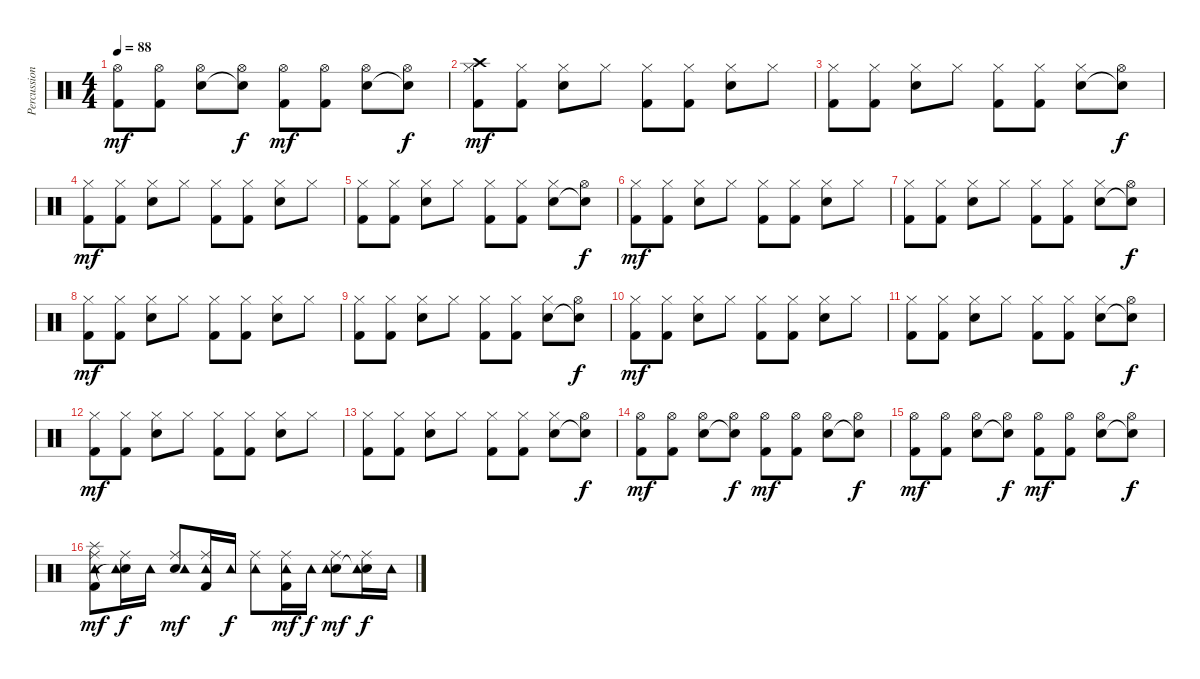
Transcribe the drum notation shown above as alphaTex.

\track ("Percussions" "Percussion") {instrument percussion}
\staff {score}
\articulation defaults
\ts (4 4)
\tempo 88
\clef neutral
\ks c
("Kick (hit) 2" "Hi-Hat (open)").8{dy mf} ("Kick (hit) 2" "Hi-Hat (open)").8 ("Snare (hit) 2" "Hi-Hat (open)").8 ("Snare (hit)"{t} "Hi-Hat (open)").8{dy f} ("Kick (hit) 2" "Hi-Hat (open)").8{dy mf} ("Kick (hit) 2" "Hi-Hat (open)").8 ("Snare (hit) 2" "Hi-Hat (open)").8 ("Snare (hit)"{t} "Hi-Hat (open)").8{dy f} |
("Kick (hit) 2" "Hi-Hat (closed)" "Crash high (hit)").8{dy mf} ("Kick (hit) 2" "Hi-Hat (closed)").8 ("Snare (hit) 2" "Hi-Hat (closed)").8 "Hi-Hat (closed)".8 ("Kick (hit) 2" "Hi-Hat (closed)").8 ("Kick (hit) 2" "Hi-Hat (closed)").8 ("Snare (hit) 2" "Hi-Hat (closed)").8 "Hi-Hat (closed)".8 |
("Kick (hit) 2" "Hi-Hat (closed)").8 ("Kick (hit) 2" "Hi-Hat (closed)").8 ("Snare (hit) 2" "Hi-Hat (closed)").8 "Hi-Hat (closed)".8 ("Kick (hit) 2" "Hi-Hat (closed)").8 ("Kick (hit) 2" "Hi-Hat (closed)").8 ("Snare (hit) 2" "Hi-Hat (closed)").8 ("Snare (hit)"{t} "Hi-Hat (open)").8{dy f} |
("Kick (hit) 2" "Hi-Hat (closed)").8{dy mf} ("Kick (hit) 2" "Hi-Hat (closed)").8 ("Snare (hit) 2" "Hi-Hat (closed)").8 "Hi-Hat (closed)".8 ("Kick (hit) 2" "Hi-Hat (closed)").8 ("Kick (hit) 2" "Hi-Hat (closed)").8 ("Snare (hit) 2" "Hi-Hat (closed)").8 "Hi-Hat (closed)".8 |
("Kick (hit) 2" "Hi-Hat (closed)").8 ("Kick (hit) 2" "Hi-Hat (closed)").8 ("Snare (hit) 2" "Hi-Hat (closed)").8 "Hi-Hat (closed)".8 ("Kick (hit) 2" "Hi-Hat (closed)").8 ("Kick (hit) 2" "Hi-Hat (closed)").8 ("Snare (hit) 2" "Hi-Hat (closed)").8 ("Snare (hit)"{t} "Hi-Hat (open)").8{dy f} |
("Kick (hit) 2" "Hi-Hat (closed)").8{dy mf} ("Kick (hit) 2" "Hi-Hat (closed)").8 ("Snare (hit) 2" "Hi-Hat (closed)").8 "Hi-Hat (closed)".8 ("Kick (hit) 2" "Hi-Hat (closed)").8 ("Kick (hit) 2" "Hi-Hat (closed)").8 ("Snare (hit) 2" "Hi-Hat (closed)").8 "Hi-Hat (closed)".8 |
("Kick (hit) 2" "Hi-Hat (closed)").8 ("Kick (hit) 2" "Hi-Hat (closed)").8 ("Snare (hit) 2" "Hi-Hat (closed)").8 "Hi-Hat (closed)".8 ("Kick (hit) 2" "Hi-Hat (closed)").8 ("Kick (hit) 2" "Hi-Hat (closed)").8 ("Snare (hit) 2" "Hi-Hat (closed)").8 ("Snare (hit)"{t} "Hi-Hat (open)").8{dy f} |
("Kick (hit) 2" "Hi-Hat (closed)").8{dy mf} ("Kick (hit) 2" "Hi-Hat (closed)").8 ("Snare (hit) 2" "Hi-Hat (closed)").8 "Hi-Hat (closed)".8 ("Kick (hit) 2" "Hi-Hat (closed)").8 ("Kick (hit) 2" "Hi-Hat (closed)").8 ("Snare (hit) 2" "Hi-Hat (closed)").8 "Hi-Hat (closed)".8 |
("Kick (hit) 2" "Hi-Hat (closed)").8 ("Kick (hit) 2" "Hi-Hat (closed)").8 ("Snare (hit) 2" "Hi-Hat (closed)").8 "Hi-Hat (closed)".8 ("Kick (hit) 2" "Hi-Hat (closed)").8 ("Kick (hit) 2" "Hi-Hat (closed)").8 ("Snare (hit) 2" "Hi-Hat (closed)").8 ("Snare (hit)"{t} "Hi-Hat (open)").8{dy f} |
("Kick (hit) 2" "Hi-Hat (closed)").8{dy mf} ("Kick (hit) 2" "Hi-Hat (closed)").8 ("Snare (hit) 2" "Hi-Hat (closed)").8 "Hi-Hat (closed)".8 ("Kick (hit) 2" "Hi-Hat (closed)").8 ("Kick (hit) 2" "Hi-Hat (closed)").8 ("Snare (hit) 2" "Hi-Hat (closed)").8 "Hi-Hat (closed)".8 |
("Kick (hit) 2" "Hi-Hat (closed)").8 ("Kick (hit) 2" "Hi-Hat (closed)").8 ("Snare (hit) 2" "Hi-Hat (closed)").8 "Hi-Hat (closed)".8 ("Kick (hit) 2" "Hi-Hat (closed)").8 ("Kick (hit) 2" "Hi-Hat (closed)").8 ("Snare (hit) 2" "Hi-Hat (closed)").8 ("Snare (hit)"{t} "Hi-Hat (open)").8{dy f} |
("Kick (hit) 2" "Hi-Hat (closed)").8{dy mf} ("Kick (hit) 2" "Hi-Hat (closed)").8 ("Snare (hit) 2" "Hi-Hat (closed)").8 "Hi-Hat (closed)".8 ("Kick (hit) 2" "Hi-Hat (closed)").8 ("Kick (hit) 2" "Hi-Hat (closed)").8 ("Snare (hit) 2" "Hi-Hat (closed)").8 "Hi-Hat (closed)".8 |
("Kick (hit) 2" "Hi-Hat (closed)").8 ("Kick (hit) 2" "Hi-Hat (closed)").8 ("Snare (hit) 2" "Hi-Hat (closed)").8 "Hi-Hat (closed)".8 ("Kick (hit) 2" "Hi-Hat (closed)").8 ("Kick (hit) 2" "Hi-Hat (closed)").8 ("Snare (hit) 2" "Hi-Hat (closed)").8 ("Snare (hit)"{t} "Hi-Hat (open)").8{dy f} |
("Kick (hit) 2" "Hi-Hat (open)").8{dy mf} ("Kick (hit) 2" "Hi-Hat (open)").8 ("Snare (hit) 2" "Hi-Hat (open)").8 ("Snare (hit)"{t} "Hi-Hat (open)").8{dy f} ("Kick (hit) 2" "Hi-Hat (open)").8{dy mf} ("Kick (hit) 2" "Hi-Hat (open)").8 ("Snare (hit) 2" "Hi-Hat (open)").8 ("Snare (hit)"{t} "Hi-Hat (open)").8{dy f} |
("Kick (hit) 2" "Hi-Hat (open)").8{dy mf} ("Kick (hit) 2" "Hi-Hat (open)").8 ("Snare (hit) 2" "Hi-Hat (open)").8 ("Snare (hit)"{t} "Hi-Hat (open)").8{dy f} ("Kick (hit) 2" "Hi-Hat (open)").8{dy mf} ("Kick (hit) 2" "Hi-Hat (open)").8 ("Snare (hit) 2" "Hi-Hat (open)").8 ("Snare (hit)"{t} "Hi-Hat (open)").8{dy f} |
("Kick (hit) 2" "Ride (middle)" "Tambourine (hit)" "Splash (hit)").8{dy mf} ("Snare (hit)"{t} "Ride (middle)" "Tambourine (hit)").16{dy f} "Tambourine (hit)".16 ("Snare (hit) 2" "Ride (middle)" "Tambourine (hit)").8{dy mf} ("Kick (hit) 2" "Ride (middle)" "Tambourine (hit)").16 "Tambourine (hit)".16{dy f} ("Ride (middle)" "Tambourine (hit)").8 ("Kick (hit) 2" "Ride (middle)" "Tambourine (hit)").16{dy mf} "Tambourine (hit)".16{dy f} ("Snare (hit) 2" "Ride (middle)" "Tambourine (hit)").8{dy mf} ("Snare (hit)"{t} "Ride (middle)" "Tambourine (hit)").16{dy f} "Tambourine (hit)".16
